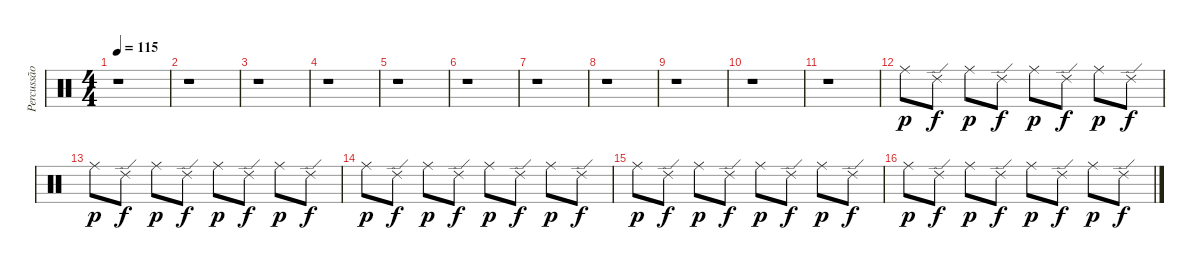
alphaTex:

\track ("Percussão" "Percussão") {instrument percussion}
\staff {score}
\articulation defaults
\ts (4 4)
\tempo 115
\clef neutral
\ks c
r.1{dy pp} |
r.1 |
r.1 |
r.1 |
r.1 |
r.1 |
r.1 |
r.1 |
r.1 |
r.1 |
r.1 |
"Ride (middle)".8{dy p} "Ride (edge) 2".8{dy f} "Ride (middle)".8{dy p} "Ride (edge) 2".8{dy f} "Ride (middle)".8{dy p} "Ride (edge) 2".8{dy f} "Ride (middle)".8{dy p} "Ride (edge) 2".8{dy f} |
"Ride (middle)".8{dy p} "Ride (edge) 2".8{dy f} "Ride (middle)".8{dy p} "Ride (edge) 2".8{dy f} "Ride (middle)".8{dy p} "Ride (edge) 2".8{dy f} "Ride (middle)".8{dy p} "Ride (edge) 2".8{dy f} |
"Ride (middle)".8{dy p} "Ride (edge) 2".8{dy f} "Ride (middle)".8{dy p} "Ride (edge) 2".8{dy f} "Ride (middle)".8{dy p} "Ride (edge) 2".8{dy f} "Ride (middle)".8{dy p} "Ride (edge) 2".8{dy f} |
"Ride (middle)".8{dy p} "Ride (edge) 2".8{dy f} "Ride (middle)".8{dy p} "Ride (edge) 2".8{dy f} "Ride (middle)".8{dy p} "Ride (edge) 2".8{dy f} "Ride (middle)".8{dy p} "Ride (edge) 2".8{dy f} |
"Ride (middle)".8{dy p} "Ride (edge) 2".8{dy f} "Ride (middle)".8{dy p} "Ride (edge) 2".8{dy f} "Ride (middle)".8{dy p} "Ride (edge) 2".8{dy f} "Ride (middle)".8{dy p} "Ride (edge) 2".8{dy f}
